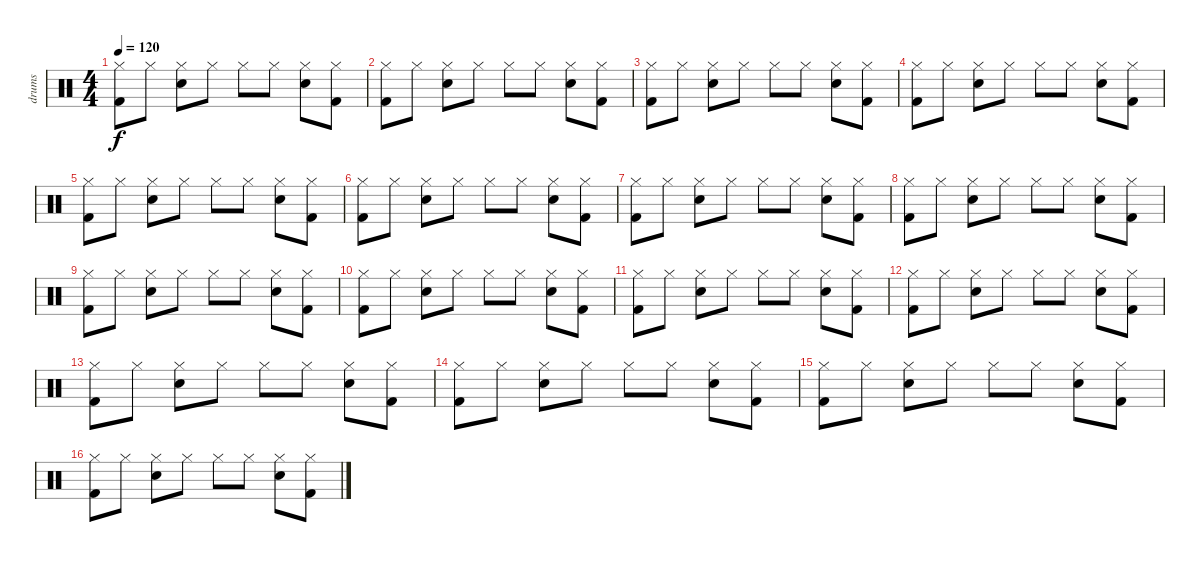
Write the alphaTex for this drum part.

\track ("drums" "drums") {instrument percussion}
\staff {score}
\articulation defaults
\ts (4 4)
\tempo 120
\clef neutral
\ks c
("Kick (hit) 2" "Hi-Hat (closed)").8{dy f} "Hi-Hat (closed)".8 ("Hi-Hat (closed)" "Snare (hit) 2").8 "Hi-Hat (closed)".8 "Hi-Hat (closed)".8 "Hi-Hat (closed)".8 ("Snare (hit) 2" "Hi-Hat (closed)").8 ("Hi-Hat (closed)" "Kick (hit) 2").8 |
("Kick (hit) 2" "Hi-Hat (closed)").8 "Hi-Hat (closed)".8 ("Hi-Hat (closed)" "Snare (hit) 2").8 "Hi-Hat (closed)".8 "Hi-Hat (closed)".8 "Hi-Hat (closed)".8 ("Snare (hit) 2" "Hi-Hat (closed)").8 ("Hi-Hat (closed)" "Kick (hit) 2").8 |
("Kick (hit) 2" "Hi-Hat (closed)").8 "Hi-Hat (closed)".8 ("Hi-Hat (closed)" "Snare (hit) 2").8 "Hi-Hat (closed)".8 "Hi-Hat (closed)".8 "Hi-Hat (closed)".8 ("Snare (hit) 2" "Hi-Hat (closed)").8 ("Hi-Hat (closed)" "Kick (hit) 2").8 |
("Kick (hit) 2" "Hi-Hat (closed)").8 "Hi-Hat (closed)".8 ("Hi-Hat (closed)" "Snare (hit) 2").8 "Hi-Hat (closed)".8 "Hi-Hat (closed)".8 "Hi-Hat (closed)".8 ("Snare (hit) 2" "Hi-Hat (closed)").8 ("Hi-Hat (closed)" "Kick (hit) 2").8 |
("Kick (hit) 2" "Hi-Hat (closed)").8 "Hi-Hat (closed)".8 ("Hi-Hat (closed)" "Snare (hit) 2").8 "Hi-Hat (closed)".8 "Hi-Hat (closed)".8 "Hi-Hat (closed)".8 ("Snare (hit) 2" "Hi-Hat (closed)").8 ("Hi-Hat (closed)" "Kick (hit) 2").8 |
("Kick (hit) 2" "Hi-Hat (closed)").8 "Hi-Hat (closed)".8 ("Hi-Hat (closed)" "Snare (hit) 2").8 "Hi-Hat (closed)".8 "Hi-Hat (closed)".8 "Hi-Hat (closed)".8 ("Snare (hit) 2" "Hi-Hat (closed)").8 ("Hi-Hat (closed)" "Kick (hit) 2").8 |
("Kick (hit) 2" "Hi-Hat (closed)").8 "Hi-Hat (closed)".8 ("Hi-Hat (closed)" "Snare (hit) 2").8 "Hi-Hat (closed)".8 "Hi-Hat (closed)".8 "Hi-Hat (closed)".8 ("Snare (hit) 2" "Hi-Hat (closed)").8 ("Hi-Hat (closed)" "Kick (hit) 2").8 |
("Kick (hit) 2" "Hi-Hat (closed)").8 "Hi-Hat (closed)".8 ("Hi-Hat (closed)" "Snare (hit) 2").8 "Hi-Hat (closed)".8 "Hi-Hat (closed)".8 "Hi-Hat (closed)".8 ("Snare (hit) 2" "Hi-Hat (closed)").8 ("Hi-Hat (closed)" "Kick (hit) 2").8 |
("Kick (hit) 2" "Hi-Hat (closed)").8 "Hi-Hat (closed)".8 ("Hi-Hat (closed)" "Snare (hit) 2").8 "Hi-Hat (closed)".8 "Hi-Hat (closed)".8 "Hi-Hat (closed)".8 ("Snare (hit) 2" "Hi-Hat (closed)").8 ("Hi-Hat (closed)" "Kick (hit) 2").8 |
("Kick (hit) 2" "Hi-Hat (closed)").8 "Hi-Hat (closed)".8 ("Hi-Hat (closed)" "Snare (hit) 2").8 "Hi-Hat (closed)".8 "Hi-Hat (closed)".8 "Hi-Hat (closed)".8 ("Snare (hit) 2" "Hi-Hat (closed)").8 ("Hi-Hat (closed)" "Kick (hit) 2").8 |
("Kick (hit) 2" "Hi-Hat (closed)").8 "Hi-Hat (closed)".8 ("Hi-Hat (closed)" "Snare (hit) 2").8 "Hi-Hat (closed)".8 "Hi-Hat (closed)".8 "Hi-Hat (closed)".8 ("Snare (hit) 2" "Hi-Hat (closed)").8 ("Hi-Hat (closed)" "Kick (hit) 2").8 |
("Kick (hit) 2" "Hi-Hat (closed)").8 "Hi-Hat (closed)".8 ("Hi-Hat (closed)" "Snare (hit) 2").8 "Hi-Hat (closed)".8 "Hi-Hat (closed)".8 "Hi-Hat (closed)".8 ("Snare (hit) 2" "Hi-Hat (closed)").8 ("Hi-Hat (closed)" "Kick (hit) 2").8 |
("Kick (hit) 2" "Hi-Hat (closed)").8 "Hi-Hat (closed)".8 ("Hi-Hat (closed)" "Snare (hit) 2").8 "Hi-Hat (closed)".8 "Hi-Hat (closed)".8 "Hi-Hat (closed)".8 ("Snare (hit) 2" "Hi-Hat (closed)").8 ("Hi-Hat (closed)" "Kick (hit) 2").8 |
("Kick (hit) 2" "Hi-Hat (closed)").8 "Hi-Hat (closed)".8 ("Hi-Hat (closed)" "Snare (hit) 2").8 "Hi-Hat (closed)".8 "Hi-Hat (closed)".8 "Hi-Hat (closed)".8 ("Snare (hit) 2" "Hi-Hat (closed)").8 ("Hi-Hat (closed)" "Kick (hit) 2").8 |
("Kick (hit) 2" "Hi-Hat (closed)").8 "Hi-Hat (closed)".8 ("Hi-Hat (closed)" "Snare (hit) 2").8 "Hi-Hat (closed)".8 "Hi-Hat (closed)".8 "Hi-Hat (closed)".8 ("Snare (hit) 2" "Hi-Hat (closed)").8 ("Hi-Hat (closed)" "Kick (hit) 2").8 |
("Kick (hit) 2" "Hi-Hat (closed)").8 "Hi-Hat (closed)".8 ("Hi-Hat (closed)" "Snare (hit) 2").8 "Hi-Hat (closed)".8 "Hi-Hat (closed)".8 "Hi-Hat (closed)".8 ("Snare (hit) 2" "Hi-Hat (closed)").8 ("Hi-Hat (closed)" "Kick (hit) 2").8
